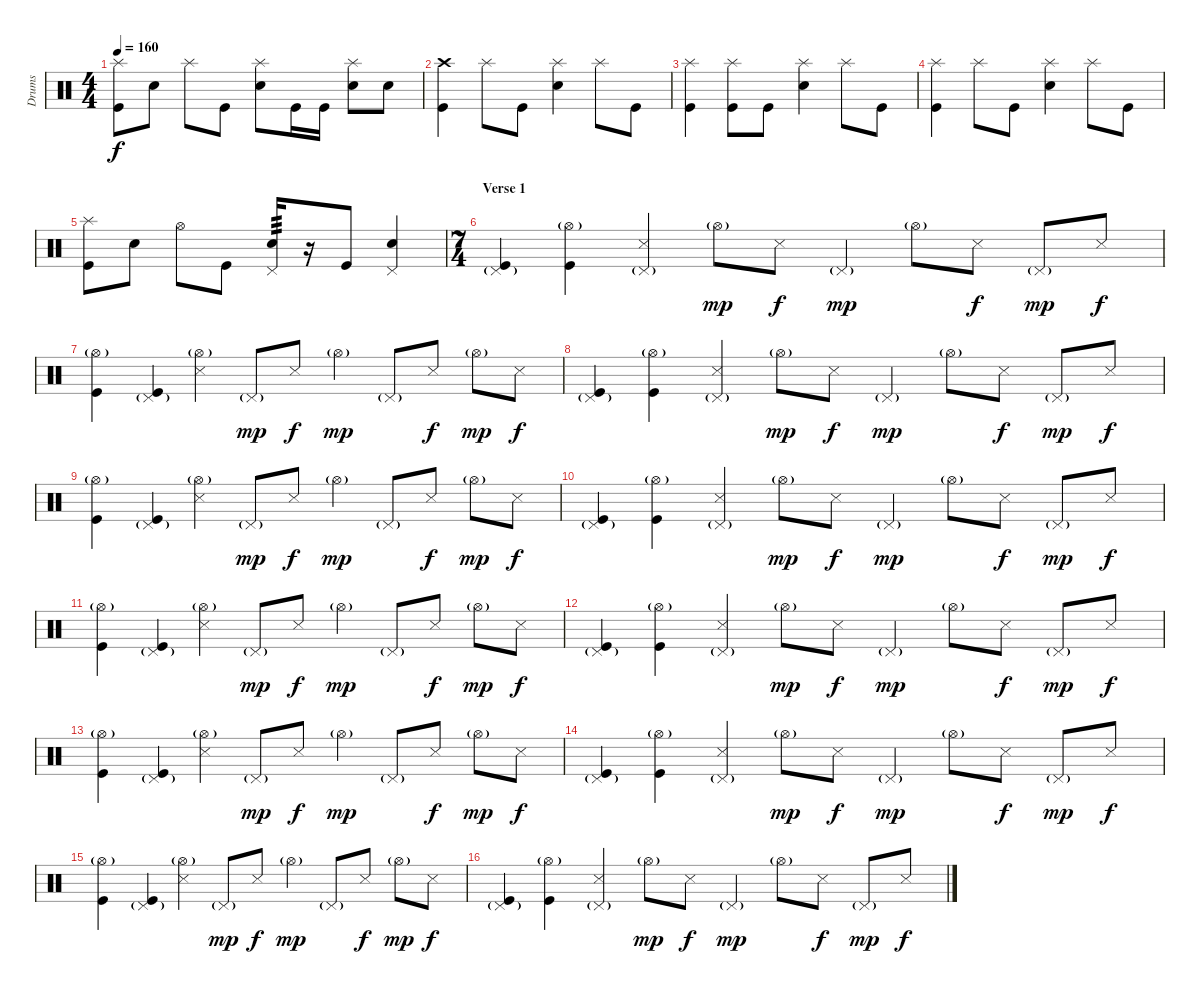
\track ("Drums" "Drums") {instrument percussion}
\staff {score}
\articulation defaults
\ts (4 4)
\tempo 160
\clef neutral
\ks c
("Splash (hit)" "Kick (hit)").8{dy f} "Snare (hit) 2".8 "Splash (hit)".8 "Kick (hit)".8 ("Splash (hit)" "Snare (hit) 2").8 "Kick (hit)".16 "Kick (hit)".16 ("Splash (hit)" "Snare (hit) 2").8 "Snare (hit) 2".8 |
("Crash high (hit)" "Kick (hit)").4 "Splash (hit)".8 "Kick (hit)".8 ("Splash (hit)" "Snare (hit) 2").4 "Splash (hit)".8 "Kick (hit)".8 |
("Splash (hit)" "Kick (hit)").4 ("Splash (hit)" "Kick (hit)").8 "Kick (hit)".8 ("Splash (hit)" "Snare (hit) 2").4 "Splash (hit)".8 "Kick (hit)".8 |
("Splash (hit)" "Kick (hit)").4 "Splash (hit)".8 "Kick (hit)".8 ("Splash (hit)" "Snare (hit) 2").4 "Splash (hit)".8 "Kick (hit)".8 |
("Splash (hit)" "Kick (hit)").8 "Snare (hit) 2".8 "Hi-Hat (open)".8 "Kick (hit)".8 ("Pedal Hi-Hat (hit)" "Snare (hit) 2").16{tp 3} r.16 "Kick (hit)".8 ("Pedal Hi-Hat (hit)" "Snare (hit) 2").4 |
\ts (7 4)
\section ("" "Verse 1")
("Pedal Hi-Hat (hit)"{g} "Kick (hit)").4 ("Hi-Hat (open)"{g} "Kick (hit)").4 ("Pedal Hi-Hat (hit)"{g} "Snare (side stick) 3").4 "Hi-Hat (open)"{g}.8{dy mp} "Snare (side stick) 3".8{dy f} "Pedal Hi-Hat (hit)"{g}.4{dy mp} "Hi-Hat (open)"{g}.8 "Snare (side stick) 3".8{dy f} "Pedal Hi-Hat (hit)"{g}.8{dy mp} "Snare (side stick) 3".8{dy f} |
("Hi-Hat (open)"{g} "Kick (hit)").4 ("Pedal Hi-Hat (hit)"{g} "Kick (hit)").4 ("Hi-Hat (open)"{g} "Snare (side stick) 3").4 "Pedal Hi-Hat (hit)"{g}.8{dy mp} "Snare (side stick) 3".8{dy f} "Hi-Hat (open)"{g}.4{dy mp} "Pedal Hi-Hat (hit)"{g}.8 "Snare (side stick) 3".8{dy f} "Hi-Hat (open)"{g}.8{dy mp} "Snare (side stick) 3".8{dy f} |
("Pedal Hi-Hat (hit)"{g} "Kick (hit)").4 ("Hi-Hat (open)"{g} "Kick (hit)").4 ("Pedal Hi-Hat (hit)"{g} "Snare (side stick) 3").4 "Hi-Hat (open)"{g}.8{dy mp} "Snare (side stick) 3".8{dy f} "Pedal Hi-Hat (hit)"{g}.4{dy mp} "Hi-Hat (open)"{g}.8 "Snare (side stick) 3".8{dy f} "Pedal Hi-Hat (hit)"{g}.8{dy mp} "Snare (side stick) 3".8{dy f} |
("Hi-Hat (open)"{g} "Kick (hit)").4 ("Pedal Hi-Hat (hit)"{g} "Kick (hit)").4 ("Hi-Hat (open)"{g} "Snare (side stick) 3").4 "Pedal Hi-Hat (hit)"{g}.8{dy mp} "Snare (side stick) 3".8{dy f} "Hi-Hat (open)"{g}.4{dy mp} "Pedal Hi-Hat (hit)"{g}.8 "Snare (side stick) 3".8{dy f} "Hi-Hat (open)"{g}.8{dy mp} "Snare (side stick) 3".8{dy f} |
("Pedal Hi-Hat (hit)"{g} "Kick (hit)").4 ("Hi-Hat (open)"{g} "Kick (hit)").4 ("Pedal Hi-Hat (hit)"{g} "Snare (side stick) 3").4 "Hi-Hat (open)"{g}.8{dy mp} "Snare (side stick) 3".8{dy f} "Pedal Hi-Hat (hit)"{g}.4{dy mp} "Hi-Hat (open)"{g}.8 "Snare (side stick) 3".8{dy f} "Pedal Hi-Hat (hit)"{g}.8{dy mp} "Snare (side stick) 3".8{dy f} |
("Hi-Hat (open)"{g} "Kick (hit)").4 ("Pedal Hi-Hat (hit)"{g} "Kick (hit)").4 ("Hi-Hat (open)"{g} "Snare (side stick) 3").4 "Pedal Hi-Hat (hit)"{g}.8{dy mp} "Snare (side stick) 3".8{dy f} "Hi-Hat (open)"{g}.4{dy mp} "Pedal Hi-Hat (hit)"{g}.8 "Snare (side stick) 3".8{dy f} "Hi-Hat (open)"{g}.8{dy mp} "Snare (side stick) 3".8{dy f} |
("Pedal Hi-Hat (hit)"{g} "Kick (hit)").4 ("Hi-Hat (open)"{g} "Kick (hit)").4 ("Pedal Hi-Hat (hit)"{g} "Snare (side stick) 3").4 "Hi-Hat (open)"{g}.8{dy mp} "Snare (side stick) 3".8{dy f} "Pedal Hi-Hat (hit)"{g}.4{dy mp} "Hi-Hat (open)"{g}.8 "Snare (side stick) 3".8{dy f} "Pedal Hi-Hat (hit)"{g}.8{dy mp} "Snare (side stick) 3".8{dy f} |
("Hi-Hat (open)"{g} "Kick (hit)").4 ("Pedal Hi-Hat (hit)"{g} "Kick (hit)").4 ("Hi-Hat (open)"{g} "Snare (side stick) 3").4 "Pedal Hi-Hat (hit)"{g}.8{dy mp} "Snare (side stick) 3".8{dy f} "Hi-Hat (open)"{g}.4{dy mp} "Pedal Hi-Hat (hit)"{g}.8 "Snare (side stick) 3".8{dy f} "Hi-Hat (open)"{g}.8{dy mp} "Snare (side stick) 3".8{dy f} |
("Pedal Hi-Hat (hit)"{g} "Kick (hit)").4 ("Hi-Hat (open)"{g} "Kick (hit)").4 ("Pedal Hi-Hat (hit)"{g} "Snare (side stick) 3").4 "Hi-Hat (open)"{g}.8{dy mp} "Snare (side stick) 3".8{dy f} "Pedal Hi-Hat (hit)"{g}.4{dy mp} "Hi-Hat (open)"{g}.8 "Snare (side stick) 3".8{dy f} "Pedal Hi-Hat (hit)"{g}.8{dy mp} "Snare (side stick) 3".8{dy f} |
("Hi-Hat (open)"{g} "Kick (hit)").4 ("Pedal Hi-Hat (hit)"{g} "Kick (hit)").4 ("Hi-Hat (open)"{g} "Snare (side stick) 3").4 "Pedal Hi-Hat (hit)"{g}.8{dy mp} "Snare (side stick) 3".8{dy f} "Hi-Hat (open)"{g}.4{dy mp} "Pedal Hi-Hat (hit)"{g}.8 "Snare (side stick) 3".8{dy f} "Hi-Hat (open)"{g}.8{dy mp} "Snare (side stick) 3".8{dy f} |
("Pedal Hi-Hat (hit)"{g} "Kick (hit)").4 ("Hi-Hat (open)"{g} "Kick (hit)").4 ("Pedal Hi-Hat (hit)"{g} "Snare (side stick) 3").4 "Hi-Hat (open)"{g}.8{dy mp} "Snare (side stick) 3".8{dy f} "Pedal Hi-Hat (hit)"{g}.4{dy mp} "Hi-Hat (open)"{g}.8 "Snare (side stick) 3".8{dy f} "Pedal Hi-Hat (hit)"{g}.8{dy mp} "Snare (side stick) 3".8{dy f}
